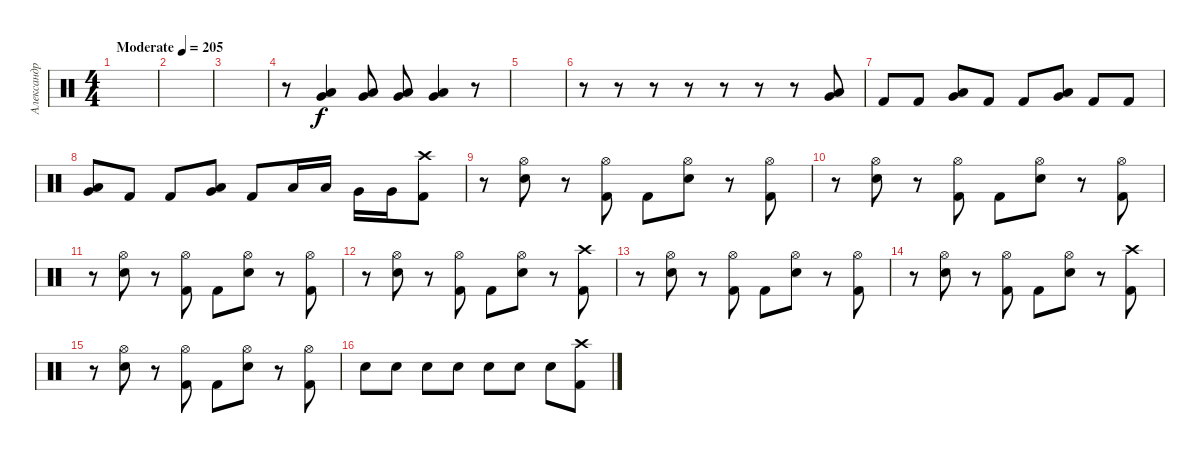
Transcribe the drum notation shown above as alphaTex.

\track ("Александр Карпухин" "Александр ") {instrument percussion}
\staff {score}
\articulation defaults
\ts (4 4)
\tempo (205 "Moderate")
\clef neutral
\ks c
|
|
|
r.8 ("Very Low Tom (hit)" "Low Tom (hit)").4 ("Low Tom (hit)" "Very Low Tom (hit)").8 ("Low Tom (hit)" "Very Low Tom (hit)").8 ("Low Tom (hit)" "Very Low Tom (hit)").4 r.8 |
|
r.8 r.8 r.8 r.8 r.8 r.8 r.8 ("Very Low Tom (hit)" "Low Tom (hit)").8 |
"Kick (hit) 2".8 "Kick (hit) 2".8 ("Low Tom (hit)" "Very Low Tom (hit)").8 "Kick (hit) 2".8 "Kick (hit) 2".8 ("Low Tom (hit)" "Very Low Tom (hit)").8 "Kick (hit) 2".8 "Kick (hit) 2".8 |
("Low Tom (hit)" "Very Low Tom (hit)").8 "Kick (hit) 2".8 "Kick (hit) 2".8 ("Low Tom (hit)" "Very Low Tom (hit)").8 "Kick (hit) 2".8 "Low Tom (hit)".16 "Low Tom (hit)".16 "Very Low Tom (hit)".16 "Very Low Tom (hit)".16 ("Crash high (hit)" "Kick (hit) 2").8 |
r.8 ("Hi-Hat (open)" "Electric Snare (hit)").8 r.8 ("Hi-Hat (open)" "Kick (hit) 2").8 "Kick (hit) 2".8 ("Hi-Hat (open)" "Electric Snare (hit)").8 r.8 ("Hi-Hat (open)" "Kick (hit) 2").8 |
r.8 ("Hi-Hat (open)" "Electric Snare (hit)").8 r.8 ("Hi-Hat (open)" "Kick (hit) 2").8 "Kick (hit) 2".8 ("Hi-Hat (open)" "Electric Snare (hit)").8 r.8 ("Hi-Hat (open)" "Kick (hit) 2").8 |
r.8 ("Hi-Hat (open)" "Electric Snare (hit)").8 r.8 ("Hi-Hat (open)" "Kick (hit) 2").8 "Kick (hit) 2".8 ("Hi-Hat (open)" "Electric Snare (hit)").8 r.8 ("Hi-Hat (open)" "Kick (hit) 2").8 |
r.8 ("Hi-Hat (open)" "Electric Snare (hit)").8 r.8 ("Hi-Hat (open)" "Kick (hit) 2").8 "Kick (hit) 2".8 ("Hi-Hat (open)" "Electric Snare (hit)").8 r.8 ("Crash high (hit)" "Kick (hit) 2").8 |
r.8 ("Hi-Hat (open)" "Electric Snare (hit)").8 r.8 ("Hi-Hat (open)" "Kick (hit) 2").8 "Kick (hit) 2".8 ("Hi-Hat (open)" "Electric Snare (hit)").8 r.8 ("Hi-Hat (open)" "Kick (hit) 2").8 |
r.8 ("Hi-Hat (open)" "Electric Snare (hit)").8 r.8 ("Hi-Hat (open)" "Kick (hit) 2").8 "Kick (hit) 2".8 ("Hi-Hat (open)" "Electric Snare (hit)").8 r.8 ("Crash high (hit)" "Kick (hit) 2").8 |
r.8 ("Hi-Hat (open)" "Electric Snare (hit)").8 r.8 ("Hi-Hat (open)" "Kick (hit) 2").8 "Kick (hit) 2".8 ("Hi-Hat (open)" "Electric Snare (hit)").8 r.8 ("Hi-Hat (open)" "Kick (hit) 2").8 |
"Electric Snare (hit)".8 "Electric Snare (hit)".8 "Electric Snare (hit)".8 "Electric Snare (hit)".8 "Electric Snare (hit)".8 "Electric Snare (hit)".8 "Electric Snare (hit)".8 ("Kick (hit) 2" "Crash high (hit)").8
